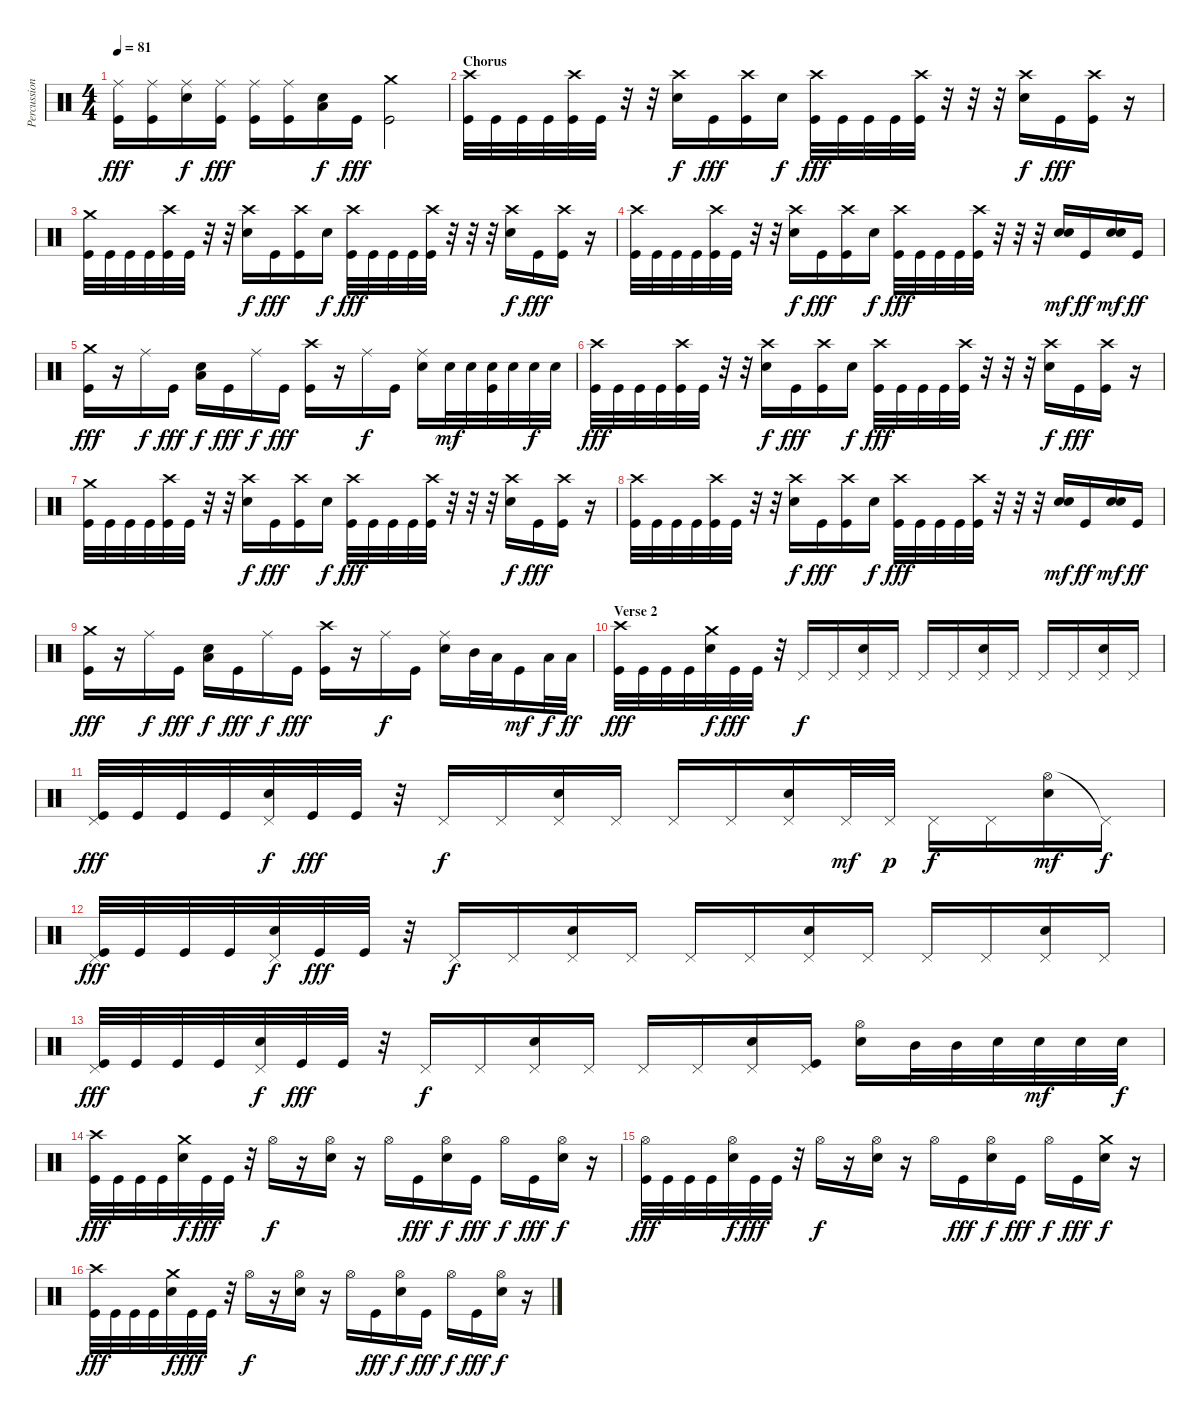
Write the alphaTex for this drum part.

\track ("Percussion" "Percussion") {instrument percussion}
\staff {score}
\articulation defaults
\ts (4 4)
\tempo 81
\clef neutral
\ks c
("Ride (middle)" "Kick (hit)").16{dy fff} ("Ride (middle)" "Kick (hit)").16 ("Ride (middle)" "Electric Snare (hit)").16{dy f} ("Ride (middle)" "Kick (hit)").16{dy fff} ("Ride (middle)" "Kick (hit)").16 ("Ride (middle)" "Kick (hit)").16 ("Electric Snare (hit)" "Low Floor Tom (hit)").16{dy f} "Kick (hit)".16{dy fff} ("Crash medium (hit)" "Kick (hit)").2 |
\section ("" "Chorus")
("Crash high (hit)" "Kick (hit)").32 "Kick (hit)".32 "Kick (hit)".32 "Kick (hit)".32 ("Crash high (hit)" "Kick (hit)").32 "Kick (hit)".32 r.32 r.32 ("Crash high (hit)" "Electric Snare (hit)").16{dy f} "Kick (hit)".16{dy fff} ("Crash high (hit)" "Kick (hit)").16 "Electric Snare (hit)".16{dy f} ("Crash high (hit)" "Kick (hit)").32{dy fff} "Kick (hit)".32 "Kick (hit)".32 "Kick (hit)".32 ("Crash high (hit)" "Kick (hit)").32 r.32 r.32 r.32 ("Crash high (hit)" "Electric Snare (hit)").16{dy f} "Kick (hit)".16{dy fff} ("Crash high (hit)" "Kick (hit)").16 r.16 |
("Crash medium (hit)" "Kick (hit)").32 "Kick (hit)".32 "Kick (hit)".32 "Kick (hit)".32 ("Crash high (hit)" "Kick (hit)").32 "Kick (hit)".32 r.32 r.32 ("Crash high (hit)" "Electric Snare (hit)").16{dy f} "Kick (hit)".16{dy fff} ("Crash high (hit)" "Kick (hit)").16 "Electric Snare (hit)".16{dy f} ("Crash high (hit)" "Kick (hit)").32{dy fff} "Kick (hit)".32 "Kick (hit)".32 "Kick (hit)".32 ("Crash high (hit)" "Kick (hit)").32 r.32 r.32 r.32 ("Crash high (hit)" "Electric Snare (hit)").16{dy f} "Kick (hit)".16{dy fff} ("Crash high (hit)" "Kick (hit)").16 r.16 |
("Crash high (hit)" "Kick (hit)").32 "Kick (hit)".32 "Kick (hit)".32 "Kick (hit)".32 ("Crash high (hit)" "Kick (hit)").32 "Kick (hit)".32 r.32 r.32 ("Crash high (hit)" "Electric Snare (hit)").16{dy f} "Kick (hit)".16{dy fff} ("Crash high (hit)" "Kick (hit)").16 "Electric Snare (hit)".16{dy f} ("Crash high (hit)" "Kick (hit)").32{dy fff} "Kick (hit)".32 "Kick (hit)".32 "Kick (hit)".32 ("Crash high (hit)" "Kick (hit)").32 r.32 r.32 r.32 ("Electric Snare (hit)" "Electric Snare (hit)").16{dy mf} "Kick (hit)".16{dy ff} ("Electric Snare (hit)" "Electric Snare (hit)").16{dy mf} "Kick (hit)".16{dy ff} |
("Crash medium (hit)" "Kick (hit)").16{dy fff} r.16 "Ride (middle)".16{dy f} "Kick (hit)".16{dy fff} ("Electric Snare (hit)" "Low Floor Tom (hit)").16{dy f} "Kick (hit)".16{dy fff} "Ride (middle)".16{dy f} "Kick (hit)".16{dy fff} ("Crash high (hit)" "Kick (hit)").16 r.16 "Ride (middle)".16{dy f} "Kick (hit)".16 ("Ride (middle)" "Electric Snare (hit)").16 "Electric Snare (hit)".32{dy mf} "Electric Snare (hit)".32 ("Electric Snare (hit)" "Kick (hit)").32 "Electric Snare (hit)".32 "Electric Snare (hit)".32{dy f} "Electric Snare (hit)".32 |
("Crash high (hit)" "Kick (hit)").32{dy fff} "Kick (hit)".32 "Kick (hit)".32 "Kick (hit)".32 ("Crash high (hit)" "Kick (hit)").32 "Kick (hit)".32 r.32 r.32 ("Crash high (hit)" "Electric Snare (hit)").16{dy f} "Kick (hit)".16{dy fff} ("Crash high (hit)" "Kick (hit)").16 "Electric Snare (hit)".16{dy f} ("Crash high (hit)" "Kick (hit)").32{dy fff} "Kick (hit)".32 "Kick (hit)".32 "Kick (hit)".32 ("Crash high (hit)" "Kick (hit)").32 r.32 r.32 r.32 ("Crash high (hit)" "Electric Snare (hit)").16{dy f} "Kick (hit)".16{dy fff} ("Crash high (hit)" "Kick (hit)").16 r.16 |
("Crash medium (hit)" "Kick (hit)").32 "Kick (hit)".32 "Kick (hit)".32 "Kick (hit)".32 ("Crash high (hit)" "Kick (hit)").32 "Kick (hit)".32 r.32 r.32 ("Crash high (hit)" "Electric Snare (hit)").16{dy f} "Kick (hit)".16{dy fff} ("Crash high (hit)" "Kick (hit)").16 "Electric Snare (hit)".16{dy f} ("Crash high (hit)" "Kick (hit)").32{dy fff} "Kick (hit)".32 "Kick (hit)".32 "Kick (hit)".32 ("Crash high (hit)" "Kick (hit)").32 r.32 r.32 r.32 ("Crash high (hit)" "Electric Snare (hit)").16{dy f} "Kick (hit)".16{dy fff} ("Crash high (hit)" "Kick (hit)").16 r.16 |
("Crash high (hit)" "Kick (hit)").32 "Kick (hit)".32 "Kick (hit)".32 "Kick (hit)".32 ("Crash high (hit)" "Kick (hit)").32 "Kick (hit)".32 r.32 r.32 ("Crash high (hit)" "Electric Snare (hit)").16{dy f} "Kick (hit)".16{dy fff} ("Crash high (hit)" "Kick (hit)").16 "Electric Snare (hit)".16{dy f} ("Crash high (hit)" "Kick (hit)").32{dy fff} "Kick (hit)".32 "Kick (hit)".32 "Kick (hit)".32 ("Crash high (hit)" "Kick (hit)").32 r.32 r.32 r.32 ("Electric Snare (hit)" "Electric Snare (hit)").16{dy mf} "Kick (hit)".16{dy ff} ("Electric Snare (hit)" "Electric Snare (hit)").16{dy mf} "Kick (hit)".16{dy ff} |
("Crash medium (hit)" "Kick (hit)").16{dy fff} r.16 "Ride (middle)".16{dy f} "Kick (hit)".16{dy fff} ("Electric Snare (hit)" "Low Floor Tom (hit)").16{dy f} "Kick (hit)".16{dy fff} "Ride (middle)".16{dy f} "Kick (hit)".16{dy fff} ("Crash high (hit)" "Kick (hit)").16 r.16 "Ride (middle)".16{dy f} "Kick (hit)".16 ("Ride (middle)" "Electric Snare (hit)").16 "Mid Tom (hit)".32 "Low Tom (hit)".32 "Kick (hit)".16{dy mf} "Low Tom (hit)".32{dy f} "Low Floor Tom (hit)".32{dy ff} |
\section ("" "Verse 2")
("Crash high (hit)" "Kick (hit)").32{dy fff} "Kick (hit)".32 "Kick (hit)".32 "Kick (hit)".32 ("Crash medium (hit)" "Electric Snare (hit)").32{dy f} "Kick (hit)".32{dy fff} "Kick (hit)".32 r.32 "Pedal Hi-Hat (hit)".16{dy f} "Pedal Hi-Hat (hit)".16 ("Pedal Hi-Hat (hit)" "Electric Snare (hit)").16 "Pedal Hi-Hat (hit)".16 "Pedal Hi-Hat (hit)".16 "Pedal Hi-Hat (hit)".16 ("Pedal Hi-Hat (hit)" "Electric Snare (hit)").16 "Pedal Hi-Hat (hit)".16 "Pedal Hi-Hat (hit)".16 "Pedal Hi-Hat (hit)".16 ("Pedal Hi-Hat (hit)" "Electric Snare (hit)").16 "Pedal Hi-Hat (hit)".16 |
("Pedal Hi-Hat (hit)" "Kick (hit)").32{dy fff} "Kick (hit)".32 "Kick (hit)".32 "Kick (hit)".32 ("Pedal Hi-Hat (hit)" "Electric Snare (hit)").32{dy f} "Kick (hit)".32{dy fff} "Kick (hit)".32 r.32 "Pedal Hi-Hat (hit)".16{dy f} "Pedal Hi-Hat (hit)".16 ("Pedal Hi-Hat (hit)" "Electric Snare (hit)").16 "Pedal Hi-Hat (hit)".16 "Pedal Hi-Hat (hit)".16 "Pedal Hi-Hat (hit)".16 ("Pedal Hi-Hat (hit)" "Electric Snare (hit)").16 "Pedal Hi-Hat (hit)".32{dy mf} "Pedal Hi-Hat (hit)".32{dy p} "Pedal Hi-Hat (hit)".16{dy f} "Pedal Hi-Hat (hit)".16 ("Hi-Hat (open)" "Electric Snare (hit)").16{dy mf} "Pedal Hi-Hat (hit)"{t}.16{dy f} |
("Pedal Hi-Hat (hit)" "Kick (hit)").32{dy fff} "Kick (hit)".32 "Kick (hit)".32 "Kick (hit)".32 ("Pedal Hi-Hat (hit)" "Electric Snare (hit)").32{dy f} "Kick (hit)".32{dy fff} "Kick (hit)".32 r.32 "Pedal Hi-Hat (hit)".16{dy f} "Pedal Hi-Hat (hit)".16 ("Pedal Hi-Hat (hit)" "Electric Snare (hit)").16 "Pedal Hi-Hat (hit)".16 "Pedal Hi-Hat (hit)".16 "Pedal Hi-Hat (hit)".16 ("Pedal Hi-Hat (hit)" "Electric Snare (hit)").16 "Pedal Hi-Hat (hit)".16 "Pedal Hi-Hat (hit)".16 "Pedal Hi-Hat (hit)".16 ("Pedal Hi-Hat (hit)" "Electric Snare (hit)").16 "Pedal Hi-Hat (hit)".16 |
("Pedal Hi-Hat (hit)" "Kick (hit)").32{dy fff} "Kick (hit)".32 "Kick (hit)".32 "Kick (hit)".32 ("Pedal Hi-Hat (hit)" "Electric Snare (hit)").32{dy f} "Kick (hit)".32{dy fff} "Kick (hit)".32 r.32 "Pedal Hi-Hat (hit)".16{dy f} "Pedal Hi-Hat (hit)".16 ("Pedal Hi-Hat (hit)" "Electric Snare (hit)").16 "Pedal Hi-Hat (hit)".16 "Pedal Hi-Hat (hit)".16 "Pedal Hi-Hat (hit)".16 ("Pedal Hi-Hat (hit)" "Electric Snare (hit)").16 ("Pedal Hi-Hat (hit)" "Kick (hit)").16 ("Hi-Hat (open)" "Electric Snare (hit)").16 "Mid Tom (hit)".32 "Mid Tom (hit)".32 "Electric Snare (hit)".32 "Electric Snare (hit)".32{dy mf} "Electric Snare (hit)".32 "Electric Snare (hit)".32{dy f} |
("Crash high (hit)" "Kick (hit)").32{dy fff} "Kick (hit)".32 "Kick (hit)".32 "Kick (hit)".32 ("Crash medium (hit)" "Electric Snare (hit)").32{dy f} "Kick (hit)".32{dy fff} "Kick (hit)".32 r.32 "Hi-Hat (open)".16{dy f} r.16 ("Hi-Hat (open)" "Electric Snare (hit)").16 r.16 "Hi-Hat (open)".16 "Kick (hit)".16{dy fff} ("Hi-Hat (open)" "Electric Snare (hit)").16{dy f} "Kick (hit)".16{dy fff} "Hi-Hat (open)".16{dy f} "Kick (hit)".16{dy fff} ("Hi-Hat (open)" "Electric Snare (hit)").16{dy f} r.16 |
("Hi-Hat (open)" "Kick (hit)").32{dy fff} "Kick (hit)".32 "Kick (hit)".32 "Kick (hit)".32 ("Hi-Hat (open)" "Electric Snare (hit)").32{dy f} "Kick (hit)".32{dy fff} "Kick (hit)".32 r.32 "Hi-Hat (open)".16{dy f} r.16 ("Hi-Hat (open)" "Electric Snare (hit)").16 r.16 "Hi-Hat (open)".16 "Kick (hit)".16{dy fff} ("Hi-Hat (open)" "Electric Snare (hit)").16{dy f} "Kick (hit)".16{dy fff} "Hi-Hat (open)".16{dy f} "Kick (hit)".16{dy fff} ("Crash medium (hit)" "Electric Snare (hit)").16{dy f} r.16 |
("Crash high (hit)" "Kick (hit)").32{dy fff} "Kick (hit)".32 "Kick (hit)".32 "Kick (hit)".32 ("Crash medium (hit)" "Electric Snare (hit)").32{dy f} "Kick (hit)".32{dy fff} "Kick (hit)".32 r.32 "Hi-Hat (open)".16{dy f} r.16 ("Hi-Hat (open)" "Electric Snare (hit)").16 r.16 "Hi-Hat (open)".16 "Kick (hit)".16{dy fff} ("Hi-Hat (open)" "Electric Snare (hit)").16{dy f} "Kick (hit)".16{dy fff} "Hi-Hat (open)".16{dy f} "Kick (hit)".16{dy fff} ("Hi-Hat (open)" "Electric Snare (hit)").16{dy f} r.16
